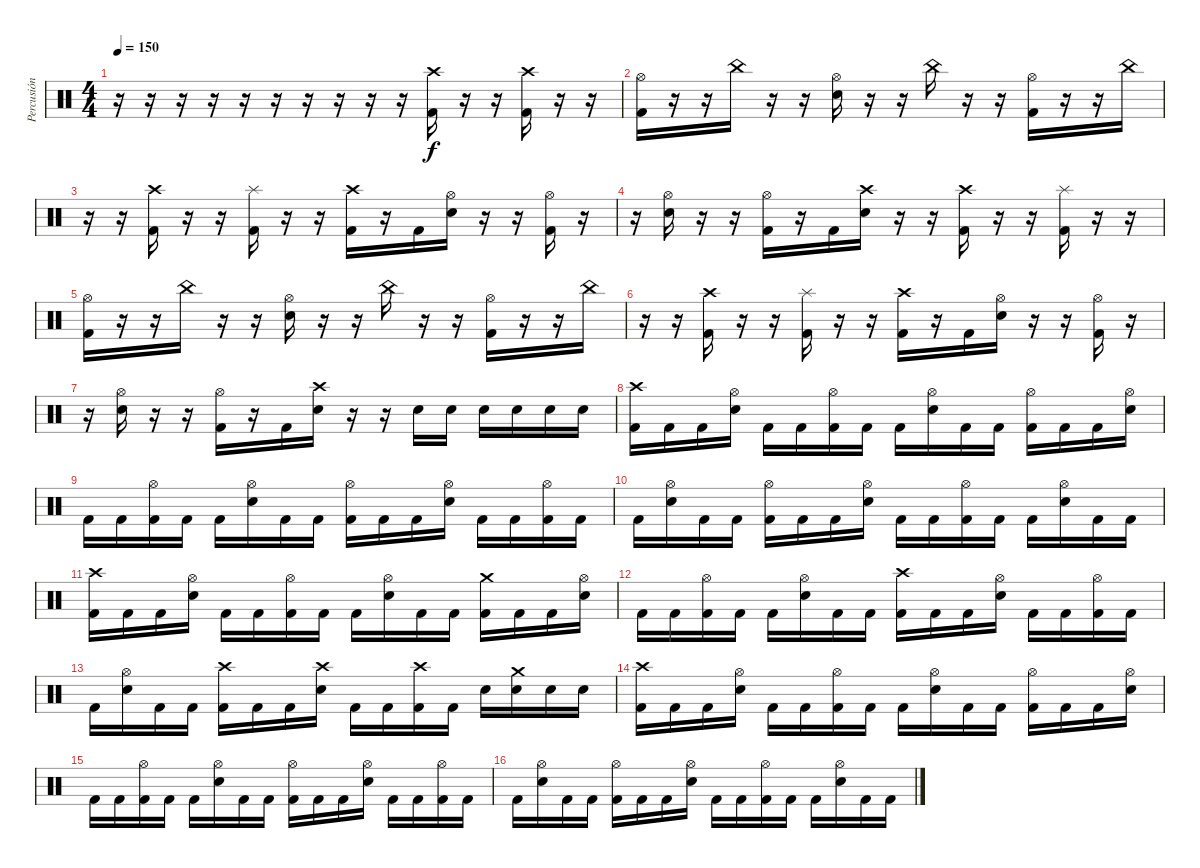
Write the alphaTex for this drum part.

\track ("Percusión" "Percusión") {instrument percussion}
\staff {score}
\articulation defaults
\ts (4 4)
\tempo 150
\clef neutral
\ks c
r.16{dy f} r.16 r.16 r.16 r.16 r.16 r.16 r.16 r.16 r.16 ("Crash high (hit)" "Kick (hit) 2").16 r.16 r.16 ("Crash high (hit)" "Kick (hit) 2").16 r.16 r.16 |
("Hi-Hat (open)" "Kick (hit) 2").16 r.16 r.16 "China (hit)".16 r.16 r.16 ("Hi-Hat (open)" "Electric Snare (hit)").16 r.16 r.16 "China (hit)".16 r.16 r.16 ("Hi-Hat (open)" "Kick (hit) 2").16 r.16 r.16 "China (hit)".16 |
r.16 r.16 ("Crash high (hit)" "Kick (hit) 2").16 r.16 r.16 ("Splash (hit)" "Kick (hit) 2").16 r.16 r.16 ("Crash high (hit)" "Kick (hit) 2").16 r.16 "Kick (hit) 2".16 ("Hi-Hat (open)" "Electric Snare (hit)").16 r.16 r.16 ("Hi-Hat (open)" "Kick (hit) 2").16 r.16 |
r.16 ("Hi-Hat (open)" "Electric Snare (hit)").16 r.16 r.16 ("Hi-Hat (open)" "Kick (hit) 2").16 r.16 "Kick (hit) 2".16 ("Crash high (hit)" "Electric Snare (hit)").16 r.16 r.16 ("Crash high (hit)" "Kick (hit) 2").16 r.16 r.16 ("Splash (hit)" "Kick (hit) 2").16 r.16 r.16 |
("Hi-Hat (open)" "Kick (hit) 2").16 r.16 r.16 "China (hit)".16 r.16 r.16 ("Hi-Hat (open)" "Electric Snare (hit)").16 r.16 r.16 "China (hit)".16 r.16 r.16 ("Hi-Hat (open)" "Kick (hit) 2").16 r.16 r.16 "China (hit)".16 |
r.16 r.16 ("Crash high (hit)" "Kick (hit) 2").16 r.16 r.16 ("Splash (hit)" "Kick (hit) 2").16 r.16 r.16 ("Crash high (hit)" "Kick (hit) 2").16 r.16 "Kick (hit) 2".16 ("Hi-Hat (open)" "Electric Snare (hit)").16 r.16 r.16 ("Hi-Hat (open)" "Kick (hit) 2").16 r.16 |
r.16 ("Hi-Hat (open)" "Electric Snare (hit)").16 r.16 r.16 ("Hi-Hat (open)" "Kick (hit) 2").16 r.16 "Kick (hit) 2".16 ("Crash high (hit)" "Electric Snare (hit)").16 r.16 r.16 "Electric Snare (hit)".16 "Electric Snare (hit)".16 "Electric Snare (hit)".16 "Electric Snare (hit)".16 "Electric Snare (hit)".16 "Electric Snare (hit)".16 |
("Crash high (hit)" "Kick (hit) 2").16 "Kick (hit) 2".16 "Kick (hit) 2".16 ("Hi-Hat (open)" "Electric Snare (hit)").16 "Kick (hit) 2".16 "Kick (hit) 2".16 ("Hi-Hat (open)" "Kick (hit) 2").16 "Kick (hit) 2".16 "Kick (hit) 2".16 ("Hi-Hat (open)" "Electric Snare (hit)").16 "Kick (hit) 2".16 "Kick (hit) 2".16 ("Hi-Hat (open)" "Kick (hit) 2").16 "Kick (hit) 2".16 "Kick (hit) 2".16 ("Hi-Hat (open)" "Electric Snare (hit)").16 |
"Kick (hit) 2".16 "Kick (hit) 2".16 ("Hi-Hat (open)" "Kick (hit) 2").16 "Kick (hit) 2".16 "Kick (hit) 2".16 ("Hi-Hat (open)" "Electric Snare (hit)").16 "Kick (hit) 2".16 "Kick (hit) 2".16 ("Hi-Hat (open)" "Kick (hit) 2").16 "Kick (hit) 2".16 "Kick (hit) 2".16 ("Hi-Hat (open)" "Electric Snare (hit)").16 "Kick (hit) 2".16 "Kick (hit) 2".16 ("Hi-Hat (open)" "Kick (hit) 2").16 "Kick (hit) 2".16 |
"Kick (hit) 2".16 ("Hi-Hat (open)" "Electric Snare (hit)").16 "Kick (hit) 2".16 "Kick (hit) 2".16 ("Hi-Hat (open)" "Kick (hit) 2").16 "Kick (hit) 2".16 "Kick (hit) 2".16 ("Hi-Hat (open)" "Electric Snare (hit)").16 "Kick (hit) 2".16 "Kick (hit) 2".16 ("Hi-Hat (open)" "Kick (hit) 2").16 "Kick (hit) 2".16 "Kick (hit) 2".16 ("Hi-Hat (open)" "Electric Snare (hit)").16 "Kick (hit) 2".16 "Kick (hit) 2".16 |
("Crash high (hit)" "Kick (hit) 2").16 "Kick (hit) 2".16 "Kick (hit) 2".16 ("Hi-Hat (open)" "Electric Snare (hit)").16 "Kick (hit) 2".16 "Kick (hit) 2".16 ("Hi-Hat (open)" "Kick (hit) 2").16 "Kick (hit) 2".16 "Kick (hit) 2".16 ("Hi-Hat (open)" "Electric Snare (hit)").16 "Kick (hit) 2".16 "Kick (hit) 2".16 ("Crash medium (hit)" "Kick (hit) 2").16 "Kick (hit) 2".16 "Kick (hit) 2".16 ("Hi-Hat (open)" "Electric Snare (hit)").16 |
"Kick (hit) 2".16 "Kick (hit) 2".16 ("Hi-Hat (open)" "Kick (hit) 2").16 "Kick (hit) 2".16 "Kick (hit) 2".16 ("Hi-Hat (open)" "Electric Snare (hit)").16 "Kick (hit) 2".16 "Kick (hit) 2".16 ("Crash high (hit)" "Kick (hit) 2").16 "Kick (hit) 2".16 "Kick (hit) 2".16 ("Hi-Hat (open)" "Electric Snare (hit)").16 "Kick (hit) 2".16 "Kick (hit) 2".16 ("Hi-Hat (open)" "Kick (hit) 2").16 "Kick (hit) 2".16 |
"Kick (hit) 2".16 ("Hi-Hat (open)" "Electric Snare (hit)").16 "Kick (hit) 2".16 "Kick (hit) 2".16 ("Crash high (hit)" "Kick (hit) 2").16 "Kick (hit) 2".16 "Kick (hit) 2".16 ("Crash high (hit)" "Electric Snare (hit)").16 "Kick (hit) 2".16 "Kick (hit) 2".16 ("Crash high (hit)" "Kick (hit) 2").16 "Kick (hit) 2".16 "Electric Snare (hit)".16 ("Crash medium (hit)" "Electric Snare (hit)").16 "Electric Snare (hit)".16 "Electric Snare (hit)".16 |
("Crash high (hit)" "Kick (hit) 2").16 "Kick (hit) 2".16 "Kick (hit) 2".16 ("Hi-Hat (open)" "Electric Snare (hit)").16 "Kick (hit) 2".16 "Kick (hit) 2".16 ("Hi-Hat (open)" "Kick (hit) 2").16 "Kick (hit) 2".16 "Kick (hit) 2".16 ("Hi-Hat (open)" "Electric Snare (hit)").16 "Kick (hit) 2".16 "Kick (hit) 2".16 ("Hi-Hat (open)" "Kick (hit) 2").16 "Kick (hit) 2".16 "Kick (hit) 2".16 ("Hi-Hat (open)" "Electric Snare (hit)").16 |
"Kick (hit) 2".16 "Kick (hit) 2".16 ("Hi-Hat (open)" "Kick (hit) 2").16 "Kick (hit) 2".16 "Kick (hit) 2".16 ("Hi-Hat (open)" "Electric Snare (hit)").16 "Kick (hit) 2".16 "Kick (hit) 2".16 ("Hi-Hat (open)" "Kick (hit) 2").16 "Kick (hit) 2".16 "Kick (hit) 2".16 ("Hi-Hat (open)" "Electric Snare (hit)").16 "Kick (hit) 2".16 "Kick (hit) 2".16 ("Hi-Hat (open)" "Kick (hit) 2").16 "Kick (hit) 2".16 |
"Kick (hit) 2".16 ("Hi-Hat (open)" "Electric Snare (hit)").16 "Kick (hit) 2".16 "Kick (hit) 2".16 ("Hi-Hat (open)" "Kick (hit) 2").16 "Kick (hit) 2".16 "Kick (hit) 2".16 ("Hi-Hat (open)" "Electric Snare (hit)").16 "Kick (hit) 2".16 "Kick (hit) 2".16 ("Hi-Hat (open)" "Kick (hit) 2").16 "Kick (hit) 2".16 "Kick (hit) 2".16 ("Hi-Hat (open)" "Electric Snare (hit)").16 "Kick (hit) 2".16 "Kick (hit) 2".16
